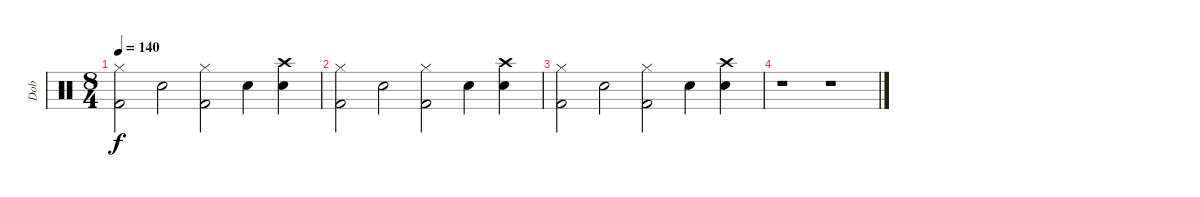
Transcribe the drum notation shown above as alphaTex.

\track ("Dob" "Dob") {instrument percussion}
\staff {score}
\articulation defaults
\ts (8 4)
\tempo 140
\clef neutral
\ks c
("Kick (hit) 2" "Hi-Hat (closed)").2{dy f} "Snare (hit) 2".2 ("Kick (hit) 2" "Hi-Hat (closed)").2 "Snare (hit) 2".4 ("Snare (hit) 2" "Crash high (hit)").4 |
("Kick (hit) 2" "Hi-Hat (closed)").2 "Snare (hit) 2".2 ("Kick (hit) 2" "Hi-Hat (closed)").2 "Snare (hit) 2".4 ("Snare (hit) 2" "Crash high (hit)").4 |
("Kick (hit) 2" "Hi-Hat (closed)").2 "Snare (hit) 2".2 ("Kick (hit) 2" "Hi-Hat (closed)").2 "Snare (hit) 2".4 ("Snare (hit) 2" "Crash high (hit)").4 |
r.1 r.1
